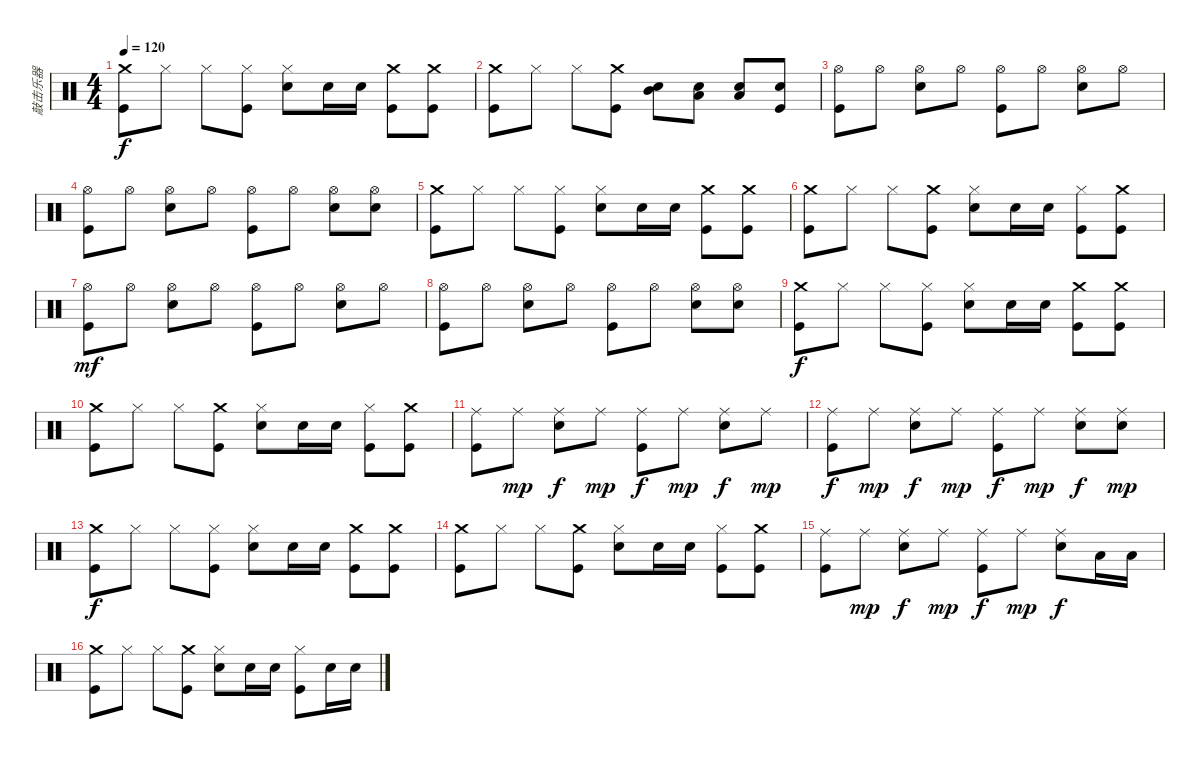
\track ("敲击乐器" "敲击乐器") {instrument percussion}
\staff {score}
\articulation defaults
\ts (4 4)
\tempo 120
\clef neutral
\ks c
("Kick (hit)" "Crash medium (hit)").8{dy f} "Hi-Hat (closed)".8 "Hi-Hat (closed)".8 ("Kick (hit)" "Hi-Hat (closed)").8 ("Snare (hit) 2" "Hi-Hat (closed)").8 "Snare (hit) 2".16 "Snare (hit) 2".16 ("Kick (hit)" "Crash medium (hit)").8 ("Kick (hit)" "Crash medium (hit)").8 |
("Kick (hit)" "Crash medium (hit)").8 "Hi-Hat (closed)".8 "Hi-Hat (closed)".8 ("Kick (hit)" "Crash medium (hit)").8 ("Snare (hit) 2" "Mid Tom (hit)").8 ("Snare (hit) 2" "Low Tom (hit)").8 ("Snare (hit) 2" "Low Floor Tom (hit)").8 ("Snare (hit) 2" "Kick (hit)").8 |
("Kick (hit)" "Hi-Hat (open)").8 "Hi-Hat (open)".8 ("Snare (hit) 2" "Hi-Hat (open)").8 "Hi-Hat (open)".8 ("Kick (hit)" "Hi-Hat (open)").8 "Hi-Hat (open)".8 ("Hi-Hat (open)" "Snare (hit) 2").8 "Hi-Hat (open)".8 |
("Kick (hit)" "Hi-Hat (open)").8 "Hi-Hat (open)".8 ("Snare (hit) 2" "Hi-Hat (open)").8 "Hi-Hat (open)".8 ("Kick (hit)" "Hi-Hat (open)").8 "Hi-Hat (open)".8 ("Snare (hit) 2" "Hi-Hat (open)").8 ("Hi-Hat (open)" "Snare (hit) 2").8 |
("Kick (hit)" "Crash medium (hit)").8 "Hi-Hat (closed)".8 "Hi-Hat (closed)".8 ("Kick (hit)" "Hi-Hat (closed)").8 ("Snare (hit) 2" "Hi-Hat (closed)").8 "Snare (hit) 2".16 "Snare (hit) 2".16 ("Kick (hit)" "Crash medium (hit)").8 ("Kick (hit)" "Crash medium (hit)").8 |
("Kick (hit)" "Crash medium (hit)").8 "Hi-Hat (closed)".8 "Hi-Hat (closed)".8 ("Kick (hit)" "Crash medium (hit)").8 ("Snare (hit) 2" "Hi-Hat (closed)").8 "Snare (hit) 2".16 "Snare (hit) 2".16 ("Kick (hit)" "Hi-Hat (closed)").8 ("Kick (hit)" "Crash medium (hit)").8 |
("Kick (hit)" "Hi-Hat (open)").8{dy mf} "Hi-Hat (open)".8 ("Snare (hit) 2" "Hi-Hat (open)").8 "Hi-Hat (open)".8 ("Kick (hit)" "Hi-Hat (open)").8 "Hi-Hat (open)".8 ("Hi-Hat (open)" "Snare (hit) 2").8 "Hi-Hat (open)".8 |
("Kick (hit)" "Hi-Hat (open)").8 "Hi-Hat (open)".8 ("Snare (hit) 2" "Hi-Hat (open)").8 "Hi-Hat (open)".8 ("Kick (hit)" "Hi-Hat (open)").8 "Hi-Hat (open)".8 ("Snare (hit) 2" "Hi-Hat (open)").8 ("Hi-Hat (open)" "Snare (hit) 2").8 |
("Kick (hit)" "Crash medium (hit)").8{dy f} "Hi-Hat (closed)".8 "Hi-Hat (closed)".8 ("Kick (hit)" "Hi-Hat (closed)").8 ("Snare (hit) 2" "Hi-Hat (closed)").8 "Snare (hit) 2".16 "Snare (hit) 2".16 ("Kick (hit)" "Crash medium (hit)").8 ("Kick (hit)" "Crash medium (hit)").8 |
("Kick (hit)" "Crash medium (hit)").8 "Hi-Hat (closed)".8 "Hi-Hat (closed)".8 ("Kick (hit)" "Crash medium (hit)").8 ("Snare (hit) 2" "Hi-Hat (closed)").8 "Snare (hit) 2".16 "Snare (hit) 2".16 ("Kick (hit)" "Hi-Hat (closed)").8 ("Kick (hit)" "Crash medium (hit)").8 |
("Kick (hit)" "Ride (middle)").8 "Ride (middle)".8{dy mp} ("Snare (hit) 2" "Ride (middle)").8{dy f} "Ride (middle)".8{dy mp} ("Kick (hit)" "Ride (middle)").8{dy f} "Ride (middle)".8{dy mp} ("Snare (hit) 2" "Ride (middle)").8{dy f} "Ride (middle)".8{dy mp} |
("Kick (hit)" "Ride (middle)").8{dy f} "Ride (middle)".8{dy mp} ("Snare (hit) 2" "Ride (middle)").8{dy f} "Ride (middle)".8{dy mp} ("Kick (hit)" "Ride (middle)").8{dy f} "Ride (middle)".8{dy mp} ("Snare (hit) 2" "Ride (middle)").8{dy f} ("Ride (middle)" "Snare (hit) 2").8{dy mp} |
("Kick (hit)" "Crash medium (hit)").8{dy f} "Hi-Hat (closed)".8 "Hi-Hat (closed)".8 ("Kick (hit)" "Hi-Hat (closed)").8 ("Snare (hit) 2" "Hi-Hat (closed)").8 "Snare (hit) 2".16 "Snare (hit) 2".16 ("Kick (hit)" "Crash medium (hit)").8 ("Kick (hit)" "Crash medium (hit)").8 |
("Kick (hit)" "Crash medium (hit)").8 "Hi-Hat (closed)".8 "Hi-Hat (closed)".8 ("Kick (hit)" "Crash medium (hit)").8 ("Snare (hit) 2" "Hi-Hat (closed)").8 "Snare (hit) 2".16 "Snare (hit) 2".16 ("Kick (hit)" "Hi-Hat (closed)").8 ("Kick (hit)" "Crash medium (hit)").8 |
("Kick (hit)" "Ride (middle)").8 "Ride (middle)".8{dy mp} ("Snare (hit) 2" "Ride (middle)").8{dy f} "Ride (middle)".8{dy mp} ("Kick (hit)" "Ride (middle)").8{dy f} "Ride (middle)".8{dy mp} ("Snare (hit) 2" "Ride (middle)").8{dy f} "Low Tom (hit)".16 "Low Tom (hit)".16 |
("Kick (hit)" "Crash medium (hit)").8 "Hi-Hat (closed)".8 "Hi-Hat (closed)".8 ("Kick (hit)" "Crash medium (hit)").8 ("Snare (hit) 2" "Hi-Hat (closed)").8 "Snare (hit) 2".16 "Snare (hit) 2".16 ("Kick (hit)" "Hi-Hat (closed)").8 "Snare (hit) 2".16 "Snare (hit) 2".16
